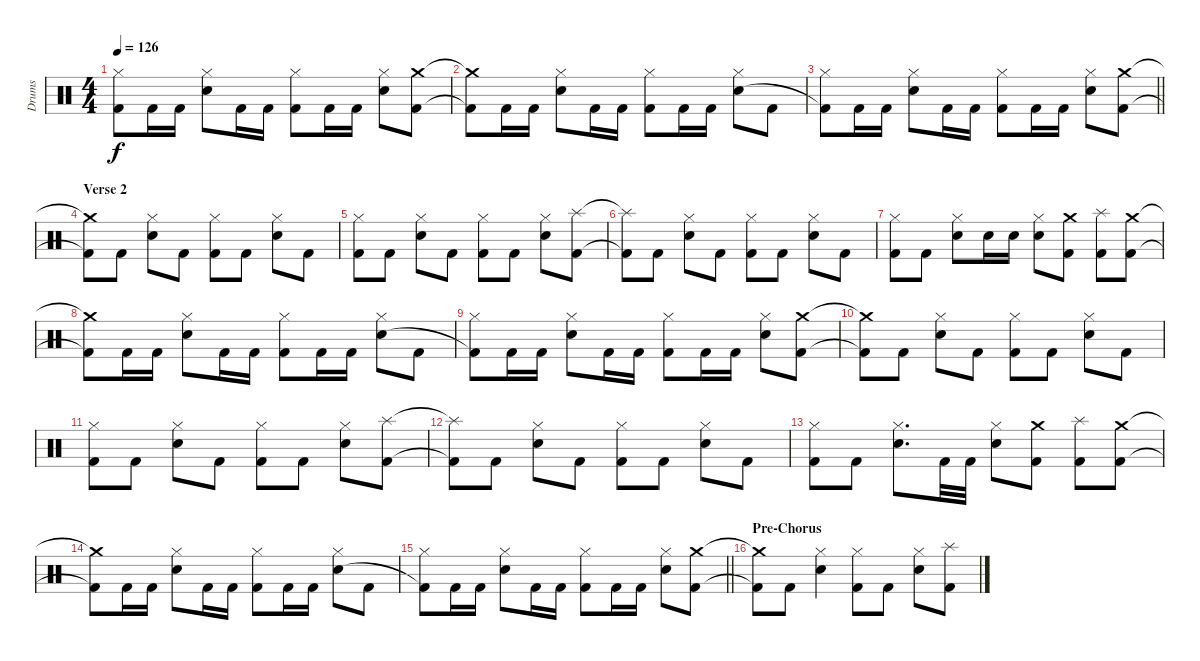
\track ("Drums" "Drums") {instrument percussion}
\staff {score}
\articulation defaults
\ts (4 4)
\tempo 126
\clef neutral
\ks c
("Hi-Hat (closed)" "Kick (hit) 2"{t}).8{dy f} "Kick (hit) 2".16 "Kick (hit) 2".16 ("Hi-Hat (closed)" "Snare (hit) 2").8 "Kick (hit) 2".16 "Kick (hit) 2".16 ("Hi-Hat (closed)" "Kick (hit) 2").8 "Kick (hit) 2".16 "Kick (hit) 2".16 ("Hi-Hat (closed)" "Snare (hit) 2").8 ("Crash medium (hit)" "Kick (hit) 2").8 |
("Crash medium (hit)"{t} "Kick (hit) 2"{t}).8 "Kick (hit) 2".16 "Kick (hit) 2".16 ("Hi-Hat (closed)" "Snare (hit) 2").8 "Kick (hit) 2".16 "Kick (hit) 2".16 ("Hi-Hat (closed)" "Kick (hit) 2").8 "Kick (hit) 2".16 "Kick (hit) 2".16 ("Hi-Hat (closed)" "Snare (hit) 2").8 "Kick (hit) 2".8 |
\barLineRight lightlight
("Hi-Hat (closed)" "Kick (hit) 2"{t}).8 "Kick (hit) 2".16 "Kick (hit) 2".16 ("Hi-Hat (closed)" "Snare (hit) 2").8 "Kick (hit) 2".16 "Kick (hit) 2".16 ("Hi-Hat (closed)" "Kick (hit) 2").8 "Kick (hit) 2".16 "Kick (hit) 2".16 ("Hi-Hat (closed)" "Snare (hit) 2").8 ("Crash medium (hit)" "Kick (hit) 2").8 |
\section ("" "Verse 2")
("Crash medium (hit)"{t} "Kick (hit) 2"{t}).8 "Kick (hit) 2".8 ("Hi-Hat (closed)" "Snare (hit) 2").8 "Kick (hit) 2".8 ("Hi-Hat (closed)" "Kick (hit) 2").8 "Kick (hit) 2".8 ("Hi-Hat (closed)" "Snare (hit) 2").8 "Kick (hit) 2".8 |
("Hi-Hat (closed)" "Kick (hit) 2").8 "Kick (hit) 2".8 ("Hi-Hat (closed)" "Snare (hit) 2").8 "Kick (hit) 2".8 ("Hi-Hat (closed)" "Kick (hit) 2").8 "Kick (hit) 2".8 ("Hi-Hat (closed)" "Snare (hit) 2").8 ("Splash (hit)" "Kick (hit) 2").8 |
("Splash (hit)"{t} "Kick (hit) 2"{t}).8 "Kick (hit) 2".8 ("Hi-Hat (closed)" "Snare (hit) 2").8 "Kick (hit) 2".8 ("Hi-Hat (closed)" "Kick (hit) 2").8 "Kick (hit) 2".8 ("Hi-Hat (closed)" "Snare (hit) 2").8 "Kick (hit) 2".8 |
("Hi-Hat (closed)" "Kick (hit) 2").8 "Kick (hit) 2".8 ("Hi-Hat (closed)" "Snare (hit) 2").8 "Snare (hit) 2".16 "Snare (hit) 2".16 ("Hi-Hat (closed)" "Snare (hit) 2").8 ("Crash medium (hit)" "Kick (hit) 2").8 ("Splash (hit)" "Kick (hit) 2").8 ("Crash medium (hit)" "Kick (hit) 2").8 |
("Crash medium (hit)"{t} "Kick (hit) 2"{t}).8 "Kick (hit) 2".16 "Kick (hit) 2".16 ("Hi-Hat (closed)" "Snare (hit) 2").8 "Kick (hit) 2".16 "Kick (hit) 2".16 ("Hi-Hat (closed)" "Kick (hit) 2").8 "Kick (hit) 2".16 "Kick (hit) 2".16 ("Hi-Hat (closed)" "Snare (hit) 2").8 "Kick (hit) 2".8 |
("Hi-Hat (closed)" "Kick (hit) 2"{t}).8 "Kick (hit) 2".16 "Kick (hit) 2".16 ("Hi-Hat (closed)" "Snare (hit) 2").8 "Kick (hit) 2".16 "Kick (hit) 2".16 ("Hi-Hat (closed)" "Kick (hit) 2").8 "Kick (hit) 2".16 "Kick (hit) 2".16 ("Hi-Hat (closed)" "Snare (hit) 2").8 ("Crash medium (hit)" "Kick (hit) 2").8 |
("Crash medium (hit)"{t} "Kick (hit) 2"{t}).8 "Kick (hit) 2".8 ("Hi-Hat (closed)" "Snare (hit) 2").8 "Kick (hit) 2".8 ("Hi-Hat (closed)" "Kick (hit) 2").8 "Kick (hit) 2".8 ("Hi-Hat (closed)" "Snare (hit) 2").8 "Kick (hit) 2".8 |
("Hi-Hat (closed)" "Kick (hit) 2").8 "Kick (hit) 2".8 ("Hi-Hat (closed)" "Snare (hit) 2").8 "Kick (hit) 2".8 ("Hi-Hat (closed)" "Kick (hit) 2").8 "Kick (hit) 2".8 ("Hi-Hat (closed)" "Snare (hit) 2").8 ("Splash (hit)" "Kick (hit) 2").8 |
("Splash (hit)"{t} "Kick (hit) 2"{t}).8 "Kick (hit) 2".8 ("Hi-Hat (closed)" "Snare (hit) 2").8 "Kick (hit) 2".8 ("Hi-Hat (closed)" "Kick (hit) 2").8 "Kick (hit) 2".8 ("Hi-Hat (closed)" "Snare (hit) 2").8 "Kick (hit) 2".8 |
("Hi-Hat (closed)" "Kick (hit) 2").8 "Kick (hit) 2".8 ("Hi-Hat (closed)" "Snare (hit) 2").8{d} "Kick (hit) 2".32 "Kick (hit) 2".32 ("Hi-Hat (closed)" "Snare (hit) 2").8 ("Crash medium (hit)" "Kick (hit) 2").8 ("Splash (hit)" "Kick (hit) 2").8 ("Crash medium (hit)" "Kick (hit) 2").8 |
("Crash medium (hit)"{t} "Kick (hit) 2"{t}).8 "Kick (hit) 2".16 "Kick (hit) 2".16 ("Hi-Hat (closed)" "Snare (hit) 2").8 "Kick (hit) 2".16 "Kick (hit) 2".16 ("Hi-Hat (closed)" "Kick (hit) 2").8 "Kick (hit) 2".16 "Kick (hit) 2".16 ("Hi-Hat (closed)" "Snare (hit) 2").8 "Kick (hit) 2".8 |
\barLineRight lightlight
("Hi-Hat (closed)" "Kick (hit) 2"{t}).8 "Kick (hit) 2".16 "Kick (hit) 2".16 ("Hi-Hat (closed)" "Snare (hit) 2").8 "Kick (hit) 2".16 "Kick (hit) 2".16 ("Hi-Hat (closed)" "Kick (hit) 2").8 "Kick (hit) 2".16 "Kick (hit) 2".16 ("Hi-Hat (closed)" "Snare (hit) 2").8 ("Crash medium (hit)" "Kick (hit) 2").8 |
\section ("" "Pre-Chorus")
("Crash medium (hit)"{t} "Kick (hit) 2"{t}).8 "Kick (hit) 2".8 ("Hi-Hat (closed)" "Snare (hit) 2").4 ("Hi-Hat (closed)" "Kick (hit) 2").8 "Kick (hit) 2".8 ("Hi-Hat (closed)" "Snare (hit) 2").8 ("Splash (hit)" "Kick (hit) 2").8
